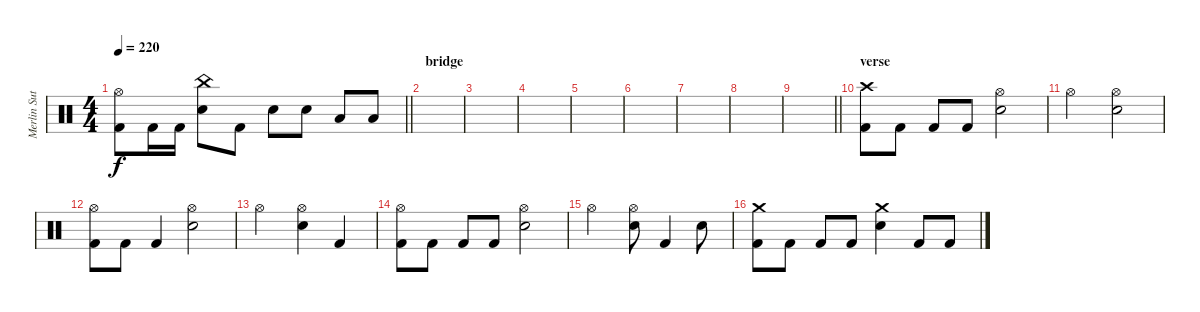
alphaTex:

\track ("Merlin Sutter" "Merlin Sut") {instrument percussion}
\staff {score}
\articulation defaults
\ts (4 4)
\tempo 220
\clef neutral
\barLineRight lightlight
\ks c
("Hi-Hat (open)" "Kick (hit) 2").8{dy f} "Kick (hit) 2".16 "Kick (hit) 2".16 ("China (hit)" "Snare (hit) 2").8 "Kick (hit) 2".8 "Snare (hit) 2".8 "Snare (hit) 2".8 "Low Tom (hit)".8 "Low Tom (hit)".8 |
\section ("" "bridge")
|
|
|
|
|
|
|
\barLineRight lightlight
|
\section ("" "verse")
("Crash high (hit)" "Kick (hit) 2").8 "Kick (hit) 2".8 "Kick (hit) 2".8 "Kick (hit) 2".8 ("Hi-Hat (open)" "Snare (hit) 2").2 |
"Hi-Hat (open)".2 ("Hi-Hat (open)" "Snare (hit) 2").2 |
("Hi-Hat (open)" "Kick (hit) 2").8 "Kick (hit) 2".8 "Kick (hit) 2".4 ("Hi-Hat (open)" "Snare (hit) 2").2 |
"Hi-Hat (open)".2 ("Hi-Hat (open)" "Snare (hit) 2").4 "Kick (hit) 2".4 |
("Hi-Hat (open)" "Kick (hit) 2").8 "Kick (hit) 2".8 "Kick (hit) 2".8 "Kick (hit) 2".8 ("Hi-Hat (open)" "Snare (hit) 2").2 |
"Hi-Hat (open)".2 ("Hi-Hat (open)" "Snare (hit) 2").8 "Kick (hit) 2".4 "Snare (hit) 2".8 |
("Crash medium (hit)" "Kick (hit) 2").8 "Kick (hit) 2".8 "Kick (hit) 2".8 "Kick (hit) 2".8 ("Crash medium (hit)" "Snare (hit) 2").4 "Kick (hit) 2".8 "Kick (hit) 2".8
